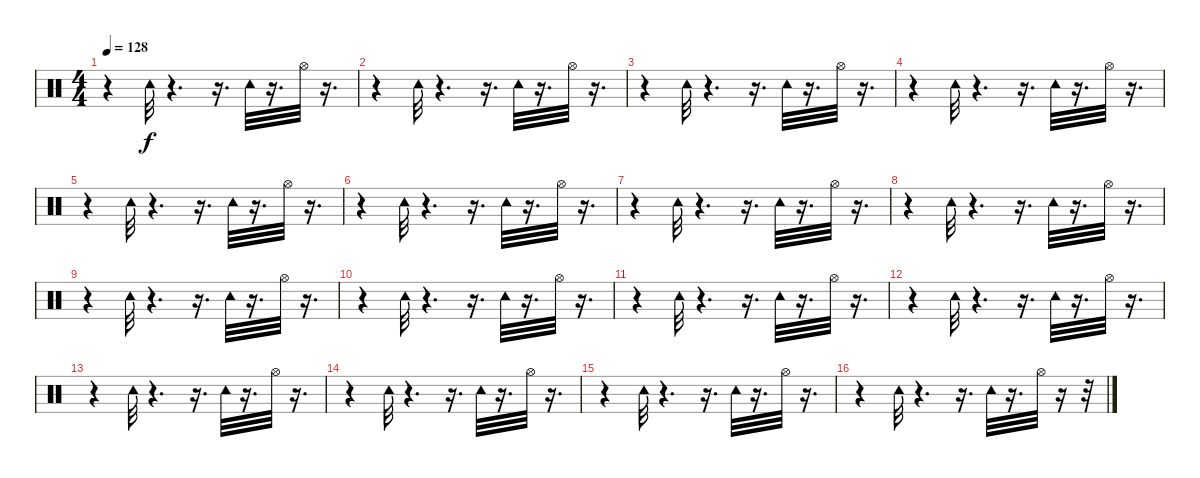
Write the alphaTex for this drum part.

\track "" {instrument percussion}
\staff {score}
\articulation defaults
\ts (4 4)
\tempo 128
\clef neutral
\ks c
r.4{dy f} "Tambourine (hit)".32 r.4{d} r.16{d} "Tambourine (hit)".32 r.16{d} "Hi-Hat (open)".32 r.16{d} |
r.4 "Tambourine (hit)".32 r.4{d} r.16{d} "Tambourine (hit)".32 r.16{d} "Hi-Hat (open)".32 r.16{d} |
r.4 "Tambourine (hit)".32 r.4{d} r.16{d} "Tambourine (hit)".32 r.16{d} "Hi-Hat (open)".32 r.16{d} |
r.4 "Tambourine (hit)".32 r.4{d} r.16{d} "Tambourine (hit)".32 r.16{d} "Hi-Hat (open)".32 r.16{d} |
r.4 "Tambourine (hit)".32 r.4{d} r.16{d} "Tambourine (hit)".32 r.16{d} "Hi-Hat (open)".32 r.16{d} |
r.4 "Tambourine (hit)".32 r.4{d} r.16{d} "Tambourine (hit)".32 r.16{d} "Hi-Hat (open)".32 r.16{d} |
r.4 "Tambourine (hit)".32 r.4{d} r.16{d} "Tambourine (hit)".32 r.16{d} "Hi-Hat (open)".32 r.16{d} |
r.4 "Tambourine (hit)".32 r.4{d} r.16{d} "Tambourine (hit)".32 r.16{d} "Hi-Hat (open)".32 r.16{d} |
r.4 "Tambourine (hit)".32 r.4{d} r.16{d} "Tambourine (hit)".32 r.16{d} "Hi-Hat (open)".32 r.16{d} |
r.4 "Tambourine (hit)".32 r.4{d} r.16{d} "Tambourine (hit)".32 r.16{d} "Hi-Hat (open)".32 r.16{d} |
r.4 "Tambourine (hit)".32 r.4{d} r.16{d} "Tambourine (hit)".32 r.16{d} "Hi-Hat (open)".32 r.16{d} |
r.4 "Tambourine (hit)".32 r.4{d} r.16{d} "Tambourine (hit)".32 r.16{d} "Hi-Hat (open)".32 r.16{d} |
r.4 "Tambourine (hit)".32 r.4{d} r.16{d} "Tambourine (hit)".32 r.16{d} "Hi-Hat (open)".32 r.16{d} |
r.4 "Tambourine (hit)".32 r.4{d} r.16{d} "Tambourine (hit)".32 r.16{d} "Hi-Hat (open)".32 r.16{d} |
r.4 "Tambourine (hit)".32 r.4{d} r.16{d} "Tambourine (hit)".32 r.16{d} "Hi-Hat (open)".32 r.16{d} |
r.4 "Tambourine (hit)".32 r.4{d} r.16{d} "Tambourine (hit)".32 r.16{d} "Hi-Hat (open)".32 r.16 r.32
